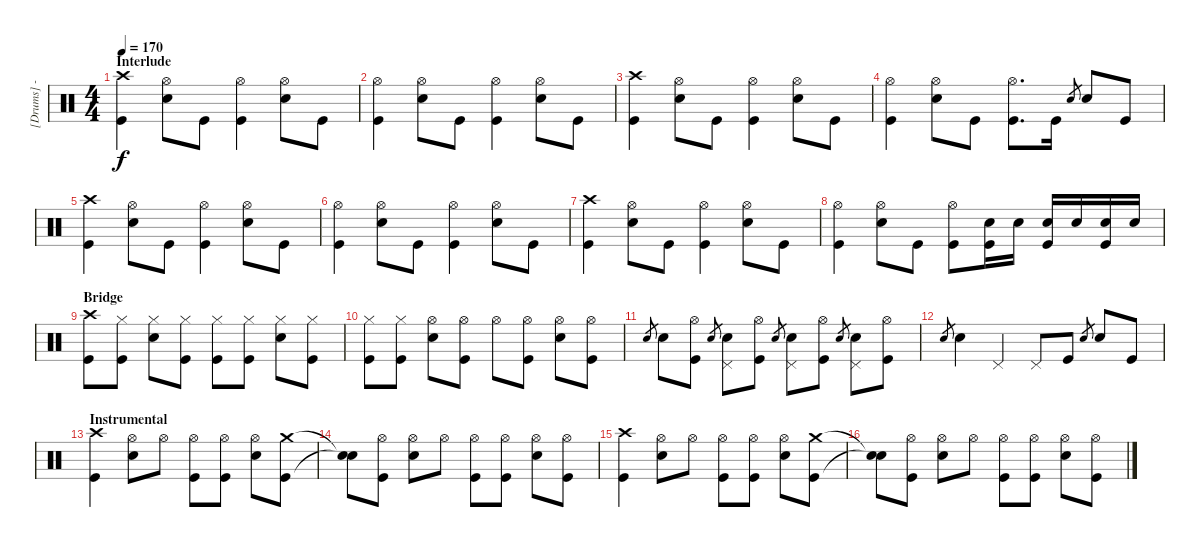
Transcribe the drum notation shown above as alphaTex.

\track ("[Drums] - Trè Cool" "[Drums] - ") {instrument percussion}
\staff {score}
\articulation defaults
\ts (4 4)
\section ("" "Interlude")
\tempo 170
\clef neutral
\ks c
("Kick (hit)" "Crash high (hit)").4{dy f} ("Snare (hit) 2" "Hi-Hat (open)").8 "Kick (hit)".8 ("Kick (hit)" "Hi-Hat (open)").4 ("Snare (hit) 2" "Hi-Hat (open)").8 "Kick (hit)".8 |
("Kick (hit)" "Hi-Hat (open)").4 ("Snare (hit) 2" "Hi-Hat (open)").8 "Kick (hit)".8 ("Kick (hit)" "Hi-Hat (open)").4 ("Snare (hit) 2" "Hi-Hat (open)").8 "Kick (hit)".8 |
("Kick (hit)" "Crash high (hit)").4 ("Snare (hit) 2" "Hi-Hat (open)").8 "Kick (hit)".8 ("Kick (hit)" "Hi-Hat (open)").4 ("Snare (hit) 2" "Hi-Hat (open)").8 "Kick (hit)".8 |
("Kick (hit)" "Hi-Hat (open)").4 ("Snare (hit) 2" "Hi-Hat (open)").8 "Kick (hit)".8 ("Kick (hit)" "Hi-Hat (open)").8{d} "Kick (hit)".16 "Snare (hit)".8{gr} "Snare (hit) 2".8 "Kick (hit)".8 |
("Kick (hit)" "Crash high (hit)").4 ("Snare (hit) 2" "Hi-Hat (open)").8 "Kick (hit)".8 ("Kick (hit)" "Hi-Hat (open)").4 ("Snare (hit) 2" "Hi-Hat (open)").8 "Kick (hit)".8 |
("Kick (hit)" "Hi-Hat (open)").4 ("Snare (hit) 2" "Hi-Hat (open)").8 "Kick (hit)".8 ("Kick (hit)" "Hi-Hat (open)").4 ("Snare (hit) 2" "Hi-Hat (open)").8 "Kick (hit)".8 |
("Kick (hit)" "Crash high (hit)").4 ("Snare (hit) 2" "Hi-Hat (open)").8 "Kick (hit)".8 ("Kick (hit)" "Hi-Hat (open)").4 ("Snare (hit) 2" "Hi-Hat (open)").8 "Kick (hit)".8 |
("Kick (hit)" "Hi-Hat (open)").4 ("Snare (hit) 2" "Hi-Hat (open)").8 "Kick (hit)".8 ("Kick (hit)" "Hi-Hat (open)").8 ("Snare (hit) 2" "Kick (hit)").16 "Snare (hit) 2".16 ("Snare (hit) 2" "Kick (hit)").16 "Snare (hit) 2".16 ("Snare (hit) 2" "Kick (hit)").16 "Snare (hit) 2".16 |
\section ("" "Bridge")
("Kick (hit)" "Crash high (hit)").8 ("Kick (hit)" "Hi-Hat (closed)").8 ("Snare (hit) 2" "Hi-Hat (closed)").8 ("Kick (hit)" "Hi-Hat (closed)").8 ("Kick (hit)" "Hi-Hat (closed)").8 ("Kick (hit)" "Hi-Hat (closed)").8 ("Snare (hit) 2" "Hi-Hat (closed)").8 ("Kick (hit)" "Hi-Hat (closed)").8 |
("Kick (hit)" "Hi-Hat (closed)").8 ("Kick (hit)" "Hi-Hat (closed)").8 ("Snare (hit) 2" "Hi-Hat (open)").8 ("Kick (hit)" "Hi-Hat (open)").8 "Hi-Hat (open)".8 ("Kick (hit)" "Hi-Hat (open)").8 ("Snare (hit) 2" "Hi-Hat (open)").8 ("Kick (hit)" "Hi-Hat (open)").8 |
"Snare (hit)".8{gr} "Snare (hit) 2".8 ("Kick (hit)" "Hi-Hat (open)").8 "Snare (hit)".8{gr} ("Snare (hit) 2" "Pedal Hi-Hat (hit)").8 ("Kick (hit)" "Hi-Hat (open)").8 "Snare (hit)".8{gr} ("Snare (hit) 2" "Pedal Hi-Hat (hit)").8 ("Kick (hit)" "Hi-Hat (open)").8 "Snare (hit)".8{gr} ("Snare (hit) 2" "Pedal Hi-Hat (hit)").8 ("Kick (hit)" "Hi-Hat (open)").8 |
"Snare (hit)".8{gr} "Snare (hit) 2".4 "Pedal Hi-Hat (hit)".4 "Pedal Hi-Hat (hit)".8 "Kick (hit)".8 "Snare (hit)".8{gr} "Snare (hit) 2".8 "Kick (hit)".8 |
\section ("" "Instrumental")
("Kick (hit)" "Crash high (hit)").4 ("Snare (hit) 2" "Hi-Hat (open)").8 "Hi-Hat (open)".8 ("Kick (hit)" "Hi-Hat (open)").8 ("Kick (hit)" "Hi-Hat (open)").8 ("Snare (hit) 2" "Hi-Hat (open)").8 ("Kick (hit)" "Crash medium (hit)").8 |
("Snare (hit)"{t} "Snare (hit)"{t}).8 ("Kick (hit)" "Hi-Hat (open)").8 ("Snare (hit) 2" "Hi-Hat (open)").8 "Hi-Hat (open)".8 ("Kick (hit)" "Hi-Hat (open)").8 ("Kick (hit)" "Hi-Hat (open)").8 ("Snare (hit) 2" "Hi-Hat (open)").8 ("Kick (hit)" "Hi-Hat (open)").8 |
("Kick (hit)" "Crash high (hit)").4 ("Snare (hit) 2" "Hi-Hat (open)").8 "Hi-Hat (open)".8 ("Kick (hit)" "Hi-Hat (open)").8 ("Kick (hit)" "Hi-Hat (open)").8 ("Snare (hit) 2" "Hi-Hat (open)").8 ("Kick (hit)" "Crash medium (hit)").8 |
("Snare (hit)"{t} "Snare (hit)"{t}).8 ("Kick (hit)" "Hi-Hat (open)").8 ("Snare (hit) 2" "Hi-Hat (open)").8 "Hi-Hat (open)".8 ("Kick (hit)" "Hi-Hat (open)").8 ("Kick (hit)" "Hi-Hat (open)").8 ("Snare (hit) 2" "Hi-Hat (open)").8 ("Kick (hit)" "Hi-Hat (open)").8
